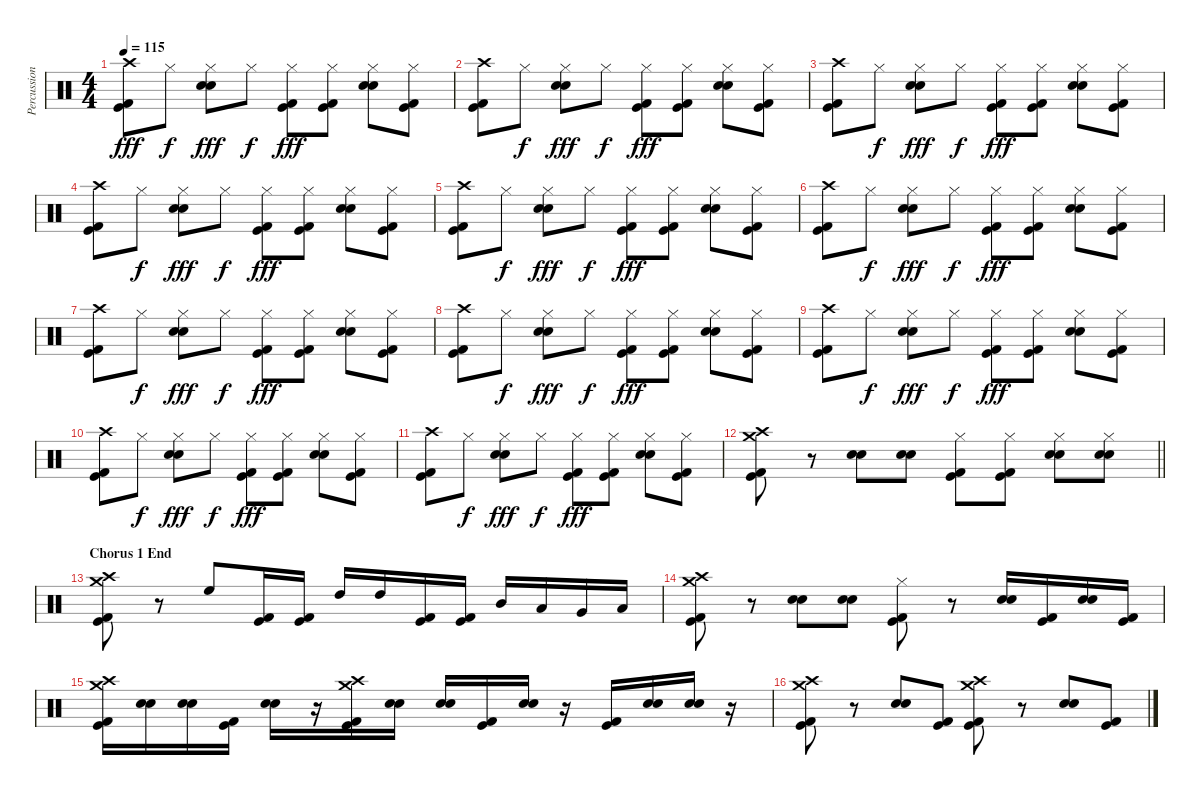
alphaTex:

\track ("Percussion" "Percussion") {instrument percussion}
\staff {score}
\articulation defaults
\ts (4 4)
\tempo 115
\clef neutral
\ks c
("Crash high (hit)" "Kick (hit) 2" "Kick (hit)").8{dy fff} "Hi-Hat (closed)".8{dy f} ("Hi-Hat (closed)" "Electric Snare (hit)" "Snare (hit) 2").8{dy fff} "Hi-Hat (closed)".8{dy f} ("Hi-Hat (closed)" "Kick (hit) 2" "Kick (hit)").8{dy fff} ("Hi-Hat (closed)" "Kick (hit) 2" "Kick (hit)").8 ("Hi-Hat (closed)" "Electric Snare (hit)" "Snare (hit) 2").8 ("Hi-Hat (closed)" "Kick (hit) 2" "Kick (hit)").8 |
("Crash high (hit)" "Kick (hit) 2" "Kick (hit)").8 "Hi-Hat (closed)".8{dy f} ("Hi-Hat (closed)" "Electric Snare (hit)" "Snare (hit) 2").8{dy fff} "Hi-Hat (closed)".8{dy f} ("Hi-Hat (closed)" "Kick (hit) 2" "Kick (hit)").8{dy fff} ("Hi-Hat (closed)" "Kick (hit) 2" "Kick (hit)").8 ("Hi-Hat (closed)" "Electric Snare (hit)" "Snare (hit) 2").8 ("Hi-Hat (closed)" "Kick (hit) 2" "Kick (hit)").8 |
("Crash high (hit)" "Kick (hit) 2" "Kick (hit)").8 "Hi-Hat (closed)".8{dy f} ("Hi-Hat (closed)" "Electric Snare (hit)" "Snare (hit) 2").8{dy fff} "Hi-Hat (closed)".8{dy f} ("Hi-Hat (closed)" "Kick (hit) 2" "Kick (hit)").8{dy fff} ("Hi-Hat (closed)" "Kick (hit) 2" "Kick (hit)").8 ("Hi-Hat (closed)" "Electric Snare (hit)" "Snare (hit) 2").8 ("Hi-Hat (closed)" "Kick (hit) 2" "Kick (hit)").8 |
("Crash high (hit)" "Kick (hit) 2" "Kick (hit)").8 "Hi-Hat (closed)".8{dy f} ("Hi-Hat (closed)" "Electric Snare (hit)" "Snare (hit) 2").8{dy fff} "Hi-Hat (closed)".8{dy f} ("Hi-Hat (closed)" "Kick (hit) 2" "Kick (hit)").8{dy fff} ("Hi-Hat (closed)" "Kick (hit) 2" "Kick (hit)").8 ("Hi-Hat (closed)" "Electric Snare (hit)" "Snare (hit) 2").8 ("Hi-Hat (closed)" "Kick (hit) 2" "Kick (hit)").8 |
("Crash high (hit)" "Kick (hit) 2" "Kick (hit)").8 "Hi-Hat (closed)".8{dy f} ("Hi-Hat (closed)" "Electric Snare (hit)" "Snare (hit) 2").8{dy fff} "Hi-Hat (closed)".8{dy f} ("Hi-Hat (closed)" "Kick (hit) 2" "Kick (hit)").8{dy fff} ("Hi-Hat (closed)" "Kick (hit) 2" "Kick (hit)").8 ("Hi-Hat (closed)" "Electric Snare (hit)" "Snare (hit) 2").8 ("Hi-Hat (closed)" "Kick (hit) 2" "Kick (hit)").8 |
("Crash high (hit)" "Kick (hit) 2" "Kick (hit)").8 "Hi-Hat (closed)".8{dy f} ("Hi-Hat (closed)" "Electric Snare (hit)" "Snare (hit) 2").8{dy fff} "Hi-Hat (closed)".8{dy f} ("Hi-Hat (closed)" "Kick (hit) 2" "Kick (hit)").8{dy fff} ("Hi-Hat (closed)" "Kick (hit) 2" "Kick (hit)").8 ("Hi-Hat (closed)" "Electric Snare (hit)" "Snare (hit) 2").8 ("Hi-Hat (closed)" "Kick (hit) 2" "Kick (hit)").8 |
("Crash high (hit)" "Kick (hit) 2" "Kick (hit)").8 "Hi-Hat (closed)".8{dy f} ("Hi-Hat (closed)" "Electric Snare (hit)" "Snare (hit) 2").8{dy fff} "Hi-Hat (closed)".8{dy f} ("Hi-Hat (closed)" "Kick (hit) 2" "Kick (hit)").8{dy fff} ("Hi-Hat (closed)" "Kick (hit) 2" "Kick (hit)").8 ("Hi-Hat (closed)" "Electric Snare (hit)" "Snare (hit) 2").8 ("Hi-Hat (closed)" "Kick (hit) 2" "Kick (hit)").8 |
("Crash high (hit)" "Kick (hit) 2" "Kick (hit)").8 "Hi-Hat (closed)".8{dy f} ("Hi-Hat (closed)" "Electric Snare (hit)" "Snare (hit) 2").8{dy fff} "Hi-Hat (closed)".8{dy f} ("Hi-Hat (closed)" "Kick (hit) 2" "Kick (hit)").8{dy fff} ("Hi-Hat (closed)" "Kick (hit) 2" "Kick (hit)").8 ("Hi-Hat (closed)" "Electric Snare (hit)" "Snare (hit) 2").8 ("Hi-Hat (closed)" "Kick (hit) 2" "Kick (hit)").8 |
("Crash high (hit)" "Kick (hit) 2" "Kick (hit)").8 "Hi-Hat (closed)".8{dy f} ("Hi-Hat (closed)" "Electric Snare (hit)" "Snare (hit) 2").8{dy fff} "Hi-Hat (closed)".8{dy f} ("Hi-Hat (closed)" "Kick (hit) 2" "Kick (hit)").8{dy fff} ("Hi-Hat (closed)" "Kick (hit) 2" "Kick (hit)").8 ("Hi-Hat (closed)" "Electric Snare (hit)" "Snare (hit) 2").8 ("Hi-Hat (closed)" "Kick (hit) 2" "Kick (hit)").8 |
("Crash high (hit)" "Kick (hit) 2" "Kick (hit)").8 "Hi-Hat (closed)".8{dy f} ("Hi-Hat (closed)" "Electric Snare (hit)" "Snare (hit) 2").8{dy fff} "Hi-Hat (closed)".8{dy f} ("Hi-Hat (closed)" "Kick (hit) 2" "Kick (hit)").8{dy fff} ("Hi-Hat (closed)" "Kick (hit) 2" "Kick (hit)").8 ("Hi-Hat (closed)" "Electric Snare (hit)" "Snare (hit) 2").8 ("Hi-Hat (closed)" "Kick (hit) 2" "Kick (hit)").8 |
("Crash high (hit)" "Kick (hit) 2" "Kick (hit)").8 "Hi-Hat (closed)".8{dy f} ("Hi-Hat (closed)" "Electric Snare (hit)" "Snare (hit) 2").8{dy fff} "Hi-Hat (closed)".8{dy f} ("Hi-Hat (closed)" "Kick (hit) 2" "Kick (hit)").8{dy fff} ("Hi-Hat (closed)" "Kick (hit) 2" "Kick (hit)").8 ("Hi-Hat (closed)" "Electric Snare (hit)" "Snare (hit) 2").8 ("Hi-Hat (closed)" "Kick (hit) 2" "Kick (hit)").8 |
\barLineRight lightlight
("Crash high (hit)" "Crash medium (hit)" "Kick (hit) 2" "Kick (hit)").8 r.8 ("Electric Snare (hit)" "Snare (hit) 2").8 ("Electric Snare (hit)" "Snare (hit) 2").8 ("Hi-Hat (closed)" "Kick (hit) 2" "Kick (hit)").8 ("Hi-Hat (closed)" "Kick (hit) 2" "Kick (hit)").8 ("Hi-Hat (closed)" "Electric Snare (hit)" "Snare (hit) 2").8 ("Hi-Hat (closed)" "Electric Snare (hit)" "Snare (hit) 2").8 |
\section ("" "Chorus 1 End")
("Crash high (hit)" "Crash medium (hit)" "Kick (hit) 2" "Kick (hit)").8 r.8 "High Floor Tom (hit)".8 ("Kick (hit) 2" "Kick (hit)").16 ("Kick (hit) 2" "Kick (hit)").16 "High Tom (hit)".16 "High Tom (hit)".16 ("Kick (hit) 2" "Kick (hit)").16 ("Kick (hit) 2" "Kick (hit)").16 "Mid Tom (hit)".16 "Low Tom (hit)".16 "Very Low Tom (hit)".16 "Low Floor Tom (hit)".16 |
("Crash high (hit)" "Crash medium (hit)" "Kick (hit) 2" "Kick (hit)").8 r.8 ("Electric Snare (hit)" "Snare (hit) 2").8 ("Electric Snare (hit)" "Snare (hit) 2").8 ("Hi-Hat (closed)" "Kick (hit) 2" "Kick (hit)").8 r.8 ("Electric Snare (hit)" "Snare (hit) 2").16 ("Kick (hit) 2" "Kick (hit)").16 ("Electric Snare (hit)" "Snare (hit) 2").16 ("Kick (hit) 2" "Kick (hit)").16 |
("Crash high (hit)" "Crash medium (hit)" "Kick (hit) 2" "Kick (hit)").16 ("Electric Snare (hit)" "Snare (hit) 2").16 ("Electric Snare (hit)" "Snare (hit) 2").16 ("Kick (hit) 2" "Kick (hit)").16 ("Electric Snare (hit)" "Snare (hit) 2").16 r.16 ("Crash high (hit)" "Crash medium (hit)" "Kick (hit) 2" "Kick (hit)").16 ("Electric Snare (hit)" "Snare (hit) 2").16 ("Electric Snare (hit)" "Snare (hit) 2").16 ("Kick (hit) 2" "Kick (hit)").16 ("Electric Snare (hit)" "Snare (hit) 2").16 r.16 ("Kick (hit) 2" "Kick (hit)").16 ("Electric Snare (hit)" "Snare (hit) 2").16 ("Electric Snare (hit)" "Snare (hit) 2").16 r.16 |
("Crash high (hit)" "Crash medium (hit)" "Kick (hit) 2" "Kick (hit)").8 r.8 ("Electric Snare (hit)" "Snare (hit) 2").8 ("Kick (hit) 2" "Kick (hit)").8 ("Crash high (hit)" "Crash medium (hit)" "Kick (hit) 2" "Kick (hit)").8 r.8 ("Electric Snare (hit)" "Snare (hit) 2").8 ("Kick (hit) 2" "Kick (hit)").8
